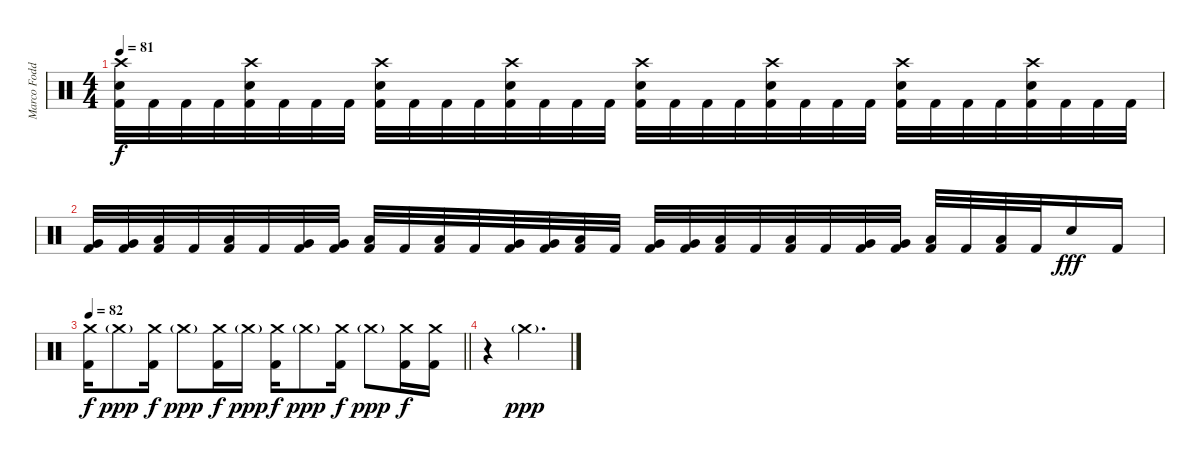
\track ("Marco Foddis" "Marco Fodd") {instrument percussion}
\staff {score}
\articulation defaults
\ts (4 4)
\tempo 81
\clef neutral
\ks c
("Crash high (hit)" "Electric Snare (hit)" "Kick (hit) 2").32{dy f} "Kick (hit) 2".32 "Kick (hit) 2".32 "Kick (hit) 2".32 ("Crash high (hit)" "Electric Snare (hit)" "Kick (hit) 2").32 "Kick (hit) 2".32 "Kick (hit) 2".32 "Kick (hit) 2".32 ("Crash high (hit)" "Electric Snare (hit)" "Kick (hit) 2").32 "Kick (hit) 2".32 "Kick (hit) 2".32 "Kick (hit) 2".32 ("Crash high (hit)" "Electric Snare (hit)" "Kick (hit) 2").32 "Kick (hit) 2".32 "Kick (hit) 2".32 "Kick (hit) 2".32 ("Crash high (hit)" "Electric Snare (hit)" "Kick (hit) 2").32 "Kick (hit) 2".32 "Kick (hit) 2".32 "Kick (hit) 2".32 ("Crash high (hit)" "Electric Snare (hit)" "Kick (hit) 2").32 "Kick (hit) 2".32 "Kick (hit) 2".32 "Kick (hit) 2".32 ("Crash high (hit)" "Electric Snare (hit)" "Kick (hit) 2").32 "Kick (hit) 2".32 "Kick (hit) 2".32 "Kick (hit) 2".32 ("Crash high (hit)" "Electric Snare (hit)" "Kick (hit) 2").32 "Kick (hit) 2".32 "Kick (hit) 2".32 "Kick (hit) 2".32 |
("Very Low Tom (hit)" "Kick (hit) 2").32 ("Very Low Tom (hit)" "Kick (hit) 2").32 ("Low Floor Tom (hit)" "Kick (hit) 2").32 "Kick (hit) 2".32 ("Low Floor Tom (hit)" "Kick (hit) 2").32 "Kick (hit) 2".32 ("Very Low Tom (hit)" "Kick (hit) 2").32 ("Very Low Tom (hit)" "Kick (hit) 2").32 ("Low Floor Tom (hit)" "Kick (hit) 2").32 "Kick (hit) 2".32 ("Low Floor Tom (hit)" "Kick (hit) 2").32 "Kick (hit) 2".32 ("Very Low Tom (hit)" "Kick (hit) 2").32 ("Very Low Tom (hit)" "Kick (hit) 2").32 ("Low Floor Tom (hit)" "Kick (hit) 2").32 "Kick (hit) 2".32 ("Very Low Tom (hit)" "Kick (hit) 2").32 ("Very Low Tom (hit)" "Kick (hit) 2").32 ("Low Floor Tom (hit)" "Kick (hit) 2").32 "Kick (hit) 2".32 ("Low Floor Tom (hit)" "Kick (hit) 2").32 "Kick (hit) 2".32 ("Very Low Tom (hit)" "Kick (hit) 2").32 ("Very Low Tom (hit)" "Kick (hit) 2").32 ("Low Floor Tom (hit)" "Kick (hit) 2").32 "Kick (hit) 2".32 ("Low Floor Tom (hit)" "Kick (hit) 2").32 "Kick (hit) 2".32 "Electric Snare (hit)".16{dy fff} "Kick (hit) 2".16 |
\tempo 82
\barLineRight lightlight
("Crash medium (hit)" "Kick (hit) 2").16{dy f} "Crash medium (hit)"{g}.8{dy ppp} ("Crash medium (hit)" "Kick (hit) 2").16{dy f} "Crash medium (hit)"{g}.8{dy ppp} ("Crash medium (hit)" "Kick (hit) 2").16{dy f} "Crash medium (hit)"{g}.16{dy ppp} ("Crash medium (hit)" "Kick (hit) 2").16{dy f} "Crash medium (hit)"{g}.8{dy ppp} ("Crash medium (hit)" "Kick (hit) 2").16{dy f} "Crash medium (hit)"{g}.8{dy ppp} ("Crash medium (hit)" "Kick (hit) 2").16{dy f} ("Crash medium (hit)" "Kick (hit) 2").16 |
r.4 "Crash medium (hit)"{g}.2{d dy ppp}
